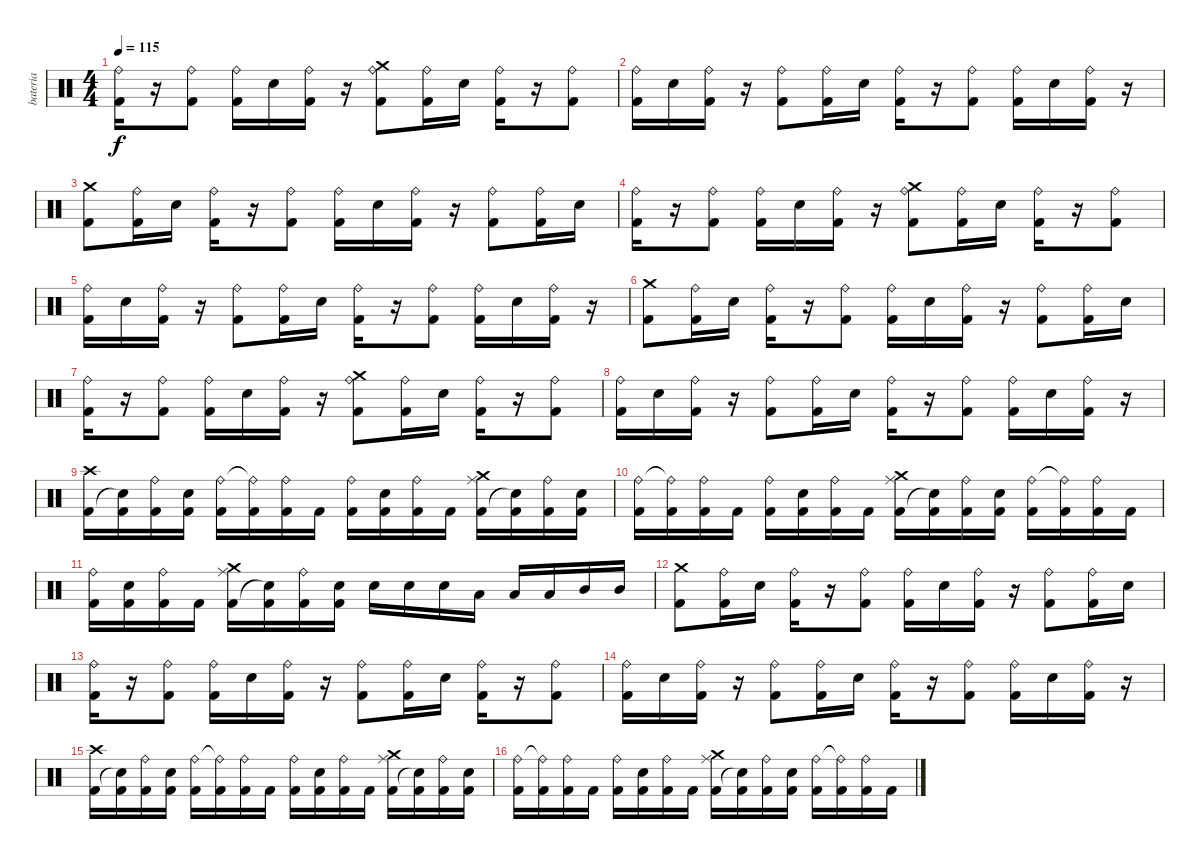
\track ("bateria" "bateria") {instrument percussion}
\staff {score}
\articulation defaults
\ts (4 4)
\tempo 115
\clef neutral
\ks c
("Ride (bell)" "Kick (hit) 2").16{dy f} r.16 ("Kick (hit) 2" "Ride (bell)").8 ("Kick (hit) 2" "Ride (bell)").16 "Electric Snare (hit)".16 ("Ride (bell)" "Kick (hit) 2").16 r.16 ("Kick (hit) 2" "Ride (bell)" "Crash medium (hit)").8 ("Kick (hit) 2" "Ride (bell)").16 "Electric Snare (hit)".16 ("Ride (bell)" "Kick (hit) 2").16 r.16 ("Kick (hit) 2" "Ride (bell)").8 |
("Kick (hit) 2" "Ride (bell)").16 "Electric Snare (hit)".16 ("Kick (hit) 2" "Ride (bell)").16 r.16 ("Kick (hit) 2" "Ride (bell)").8 ("Kick (hit) 2" "Ride (bell)").16 "Electric Snare (hit)".16 ("Kick (hit) 2" "Ride (bell)").16 r.16 ("Kick (hit) 2" "Ride (bell)").8 ("Kick (hit) 2" "Ride (bell)").16 "Electric Snare (hit)".16 ("Kick (hit) 2" "Ride (bell)").16 r.16 |
("Kick (hit) 2" "Crash medium (hit)").8 ("Kick (hit) 2" "Ride (bell)").16 "Electric Snare (hit)".16 ("Kick (hit) 2" "Ride (bell)").16 r.16 ("Kick (hit) 2" "Ride (bell)").8 ("Kick (hit) 2" "Ride (bell)").16 "Electric Snare (hit)".16 ("Kick (hit) 2" "Ride (bell)").16 r.16 ("Kick (hit) 2" "Ride (bell)").8 ("Kick (hit) 2" "Ride (bell)").16 "Electric Snare (hit)".16 |
("Ride (bell)" "Kick (hit) 2").16 r.16 ("Kick (hit) 2" "Ride (bell)").8 ("Kick (hit) 2" "Ride (bell)").16 "Electric Snare (hit)".16 ("Ride (bell)" "Kick (hit) 2").16 r.16 ("Kick (hit) 2" "Ride (bell)" "Crash medium (hit)").8 ("Kick (hit) 2" "Ride (bell)").16 "Electric Snare (hit)".16 ("Ride (bell)" "Kick (hit) 2").16 r.16 ("Kick (hit) 2" "Ride (bell)").8 |
("Kick (hit) 2" "Ride (bell)").16 "Electric Snare (hit)".16 ("Kick (hit) 2" "Ride (bell)").16 r.16 ("Kick (hit) 2" "Ride (bell)").8 ("Kick (hit) 2" "Ride (bell)").16 "Electric Snare (hit)".16 ("Kick (hit) 2" "Ride (bell)").16 r.16 ("Kick (hit) 2" "Ride (bell)").8 ("Kick (hit) 2" "Ride (bell)").16 "Electric Snare (hit)".16 ("Kick (hit) 2" "Ride (bell)").16 r.16 |
("Kick (hit) 2" "Crash medium (hit)").8 ("Kick (hit) 2" "Ride (bell)").16 "Electric Snare (hit)".16 ("Kick (hit) 2" "Ride (bell)").16 r.16 ("Kick (hit) 2" "Ride (bell)").8 ("Kick (hit) 2" "Ride (bell)").16 "Electric Snare (hit)".16 ("Kick (hit) 2" "Ride (bell)").16 r.16 ("Kick (hit) 2" "Ride (bell)").8 ("Kick (hit) 2" "Ride (bell)").16 "Electric Snare (hit)".16 |
("Ride (bell)" "Kick (hit) 2").16 r.16 ("Kick (hit) 2" "Ride (bell)").8 ("Kick (hit) 2" "Ride (bell)").16 "Electric Snare (hit)".16 ("Ride (bell)" "Kick (hit) 2").16 r.16 ("Kick (hit) 2" "Ride (bell)" "Crash medium (hit)").8 ("Kick (hit) 2" "Ride (bell)").16 "Electric Snare (hit)".16 ("Ride (bell)" "Kick (hit) 2").16 r.16 ("Kick (hit) 2" "Ride (bell)").8 |
("Kick (hit) 2" "Ride (bell)").16 "Electric Snare (hit)".16 ("Kick (hit) 2" "Ride (bell)").16 r.16 ("Kick (hit) 2" "Ride (bell)").8 ("Kick (hit) 2" "Ride (bell)").16 "Electric Snare (hit)".16 ("Kick (hit) 2" "Ride (bell)").16 r.16 ("Kick (hit) 2" "Ride (bell)").8 ("Kick (hit) 2" "Ride (bell)").16 "Electric Snare (hit)".16 ("Kick (hit) 2" "Ride (bell)").16 r.16 |
("Crash high (hit)" "Kick (hit) 2").16 ("Kick (hit) 2" "Snare (hit)"{t}).16 ("Ride (bell)" "Kick (hit) 2").16 ("Electric Snare (hit)" "Kick (hit) 2").16 ("Ride (bell)" "Kick (hit) 2").16 ("Ride (bell)"{t} "Kick (hit) 2").16 ("Kick (hit) 2" "Ride (bell)").16 "Kick (hit) 2".16 ("Ride (bell)" "Kick (hit) 2").16 ("Electric Snare (hit)" "Kick (hit) 2").16 ("Kick (hit) 2" "Ride (bell)").16 "Kick (hit) 2".16 ("Ride (middle)" "Kick (hit) 2" "Crash medium (hit)").16 ("Kick (hit) 2" "Snare (hit)"{t}).16 ("Ride (bell)" "Kick (hit) 2").16 ("Electric Snare (hit)" "Kick (hit) 2").16 |
("Ride (bell)" "Kick (hit) 2").16 ("Ride (bell)"{t} "Kick (hit) 2").16 ("Kick (hit) 2" "Ride (bell)").16 "Kick (hit) 2".16 ("Ride (bell)" "Kick (hit) 2").16 ("Electric Snare (hit)" "Kick (hit) 2").16 ("Kick (hit) 2" "Ride (bell)").16 "Kick (hit) 2".16 ("Ride (middle)" "Kick (hit) 2" "Crash medium (hit)").16 ("Kick (hit) 2" "Snare (hit)"{t}).16 ("Ride (bell)" "Kick (hit) 2").16 ("Electric Snare (hit)" "Kick (hit) 2").16 ("Ride (bell)" "Kick (hit) 2").16 ("Ride (bell)"{t} "Kick (hit) 2").16 ("Kick (hit) 2" "Ride (bell)").16 "Kick (hit) 2".16 |
("Ride (bell)" "Kick (hit) 2").16 ("Electric Snare (hit)" "Kick (hit) 2").16 ("Kick (hit) 2" "Ride (bell)").16 "Kick (hit) 2".16 ("Ride (middle)" "Kick (hit) 2" "Crash medium (hit)").16 ("Kick (hit) 2" "Snare (hit)"{t}).16 ("Ride (bell)" "Kick (hit) 2").16 ("Electric Snare (hit)" "Kick (hit) 2").16 "Snare (hit) 2".16 "Snare (hit) 2".16 "Snare (hit) 2".16 "Low Tom (hit)".16 "Low Tom (hit)".16 "Low Tom (hit)".16 "Mid Tom (hit)".16 "Mid Tom (hit)".16 |
("Kick (hit) 2" "Crash medium (hit)").8 ("Kick (hit) 2" "Ride (bell)").16 "Electric Snare (hit)".16 ("Kick (hit) 2" "Ride (bell)").16 r.16 ("Kick (hit) 2" "Ride (bell)").8 ("Kick (hit) 2" "Ride (bell)").16 "Electric Snare (hit)".16 ("Kick (hit) 2" "Ride (bell)").16 r.16 ("Kick (hit) 2" "Ride (bell)").8 ("Kick (hit) 2" "Ride (bell)").16 "Electric Snare (hit)".16 |
("Ride (bell)" "Kick (hit) 2").16 r.16 ("Kick (hit) 2" "Ride (bell)").8 ("Kick (hit) 2" "Ride (bell)").16 "Electric Snare (hit)".16 ("Ride (bell)" "Kick (hit) 2").16 r.16 ("Kick (hit) 2" "Ride (bell)").8 ("Kick (hit) 2" "Ride (bell)").16 "Electric Snare (hit)".16 ("Ride (bell)" "Kick (hit) 2").16 r.16 ("Kick (hit) 2" "Ride (bell)").8 |
("Kick (hit) 2" "Ride (bell)").16 "Electric Snare (hit)".16 ("Kick (hit) 2" "Ride (bell)").16 r.16 ("Kick (hit) 2" "Ride (bell)").8 ("Kick (hit) 2" "Ride (bell)").16 "Electric Snare (hit)".16 ("Kick (hit) 2" "Ride (bell)").16 r.16 ("Kick (hit) 2" "Ride (bell)").8 ("Kick (hit) 2" "Ride (bell)").16 "Electric Snare (hit)".16 ("Kick (hit) 2" "Ride (bell)").16 r.16 |
("Crash high (hit)" "Kick (hit) 2").16 ("Kick (hit) 2" "Snare (hit)"{t}).16 ("Ride (bell)" "Kick (hit) 2").16 ("Electric Snare (hit)" "Kick (hit) 2").16 ("Ride (bell)" "Kick (hit) 2").16 ("Ride (bell)"{t} "Kick (hit) 2").16 ("Kick (hit) 2" "Ride (bell)").16 "Kick (hit) 2".16 ("Ride (bell)" "Kick (hit) 2").16 ("Electric Snare (hit)" "Kick (hit) 2").16 ("Kick (hit) 2" "Ride (bell)").16 "Kick (hit) 2".16 ("Ride (middle)" "Kick (hit) 2" "Crash medium (hit)").16 ("Kick (hit) 2" "Snare (hit)"{t}).16 ("Ride (bell)" "Kick (hit) 2").16 ("Electric Snare (hit)" "Kick (hit) 2").16 |
("Ride (bell)" "Kick (hit) 2").16 ("Ride (bell)"{t} "Kick (hit) 2").16 ("Kick (hit) 2" "Ride (bell)").16 "Kick (hit) 2".16 ("Ride (bell)" "Kick (hit) 2").16 ("Electric Snare (hit)" "Kick (hit) 2").16 ("Kick (hit) 2" "Ride (bell)").16 "Kick (hit) 2".16 ("Ride (middle)" "Kick (hit) 2" "Crash medium (hit)").16 ("Kick (hit) 2" "Snare (hit)"{t}).16 ("Ride (bell)" "Kick (hit) 2").16 ("Electric Snare (hit)" "Kick (hit) 2").16 ("Ride (bell)" "Kick (hit) 2").16 ("Ride (bell)"{t} "Kick (hit) 2").16 ("Kick (hit) 2" "Ride (bell)").16 "Kick (hit) 2".16
